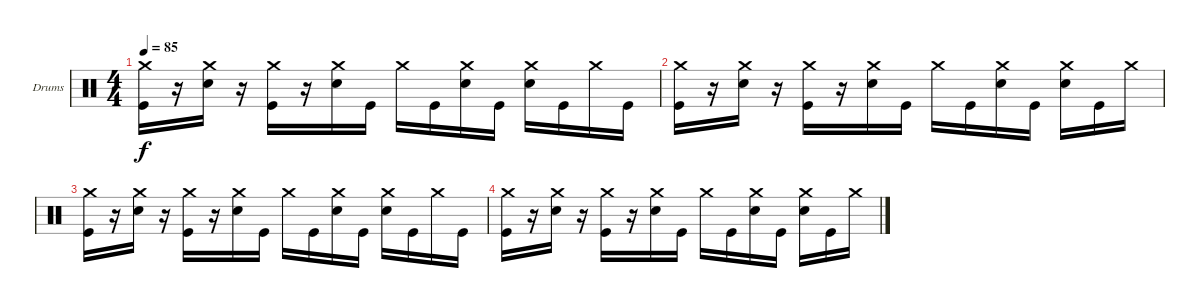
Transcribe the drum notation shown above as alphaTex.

\defaultSystemsLayout 4
\bracketExtendMode groupsimilarinstruments
\firstSystemTrackNameOrientation horizontal
\otherSystemsTrackNameOrientation horizontal
\track ("Drumkit" "Drums") {instrument percussion}
\staff {score}
\articulation defaults
\ts (4 4)
\tempo 85
\clef neutral
\ks c
("Crash medium (hit)" "Kick (hit)").16{dy f} r.16 ("Crash medium (hit)" "Snare (hit) 2").16 r.16 ("Crash medium (hit)" "Kick (hit)").16 r.16 ("Crash medium (hit)" "Snare (hit) 2").16 "Kick (hit)".16 "Crash medium (hit)".16 "Kick (hit)".16 ("Crash medium (hit)" "Snare (hit) 2").16 "Kick (hit)".16 ("Crash medium (hit)" "Snare (hit) 2").16 "Kick (hit)".16 "Crash medium (hit)".16 "Kick (hit)".16 |
("Crash medium (hit)" "Kick (hit)").16 r.16 ("Crash medium (hit)" "Snare (hit) 2").16 r.16 ("Crash medium (hit)" "Kick (hit)").16 r.16 ("Crash medium (hit)" "Snare (hit) 2").16 "Kick (hit)".16 "Crash medium (hit)".16 "Kick (hit)".16 ("Crash medium (hit)" "Snare (hit) 2").16 "Kick (hit)".16 ("Crash medium (hit)" "Snare (hit) 2").16 "Kick (hit)".16 "Crash medium (hit)".16 |
("Crash medium (hit)" "Kick (hit)").16 r.16 ("Crash medium (hit)" "Snare (hit) 2").16 r.16 ("Crash medium (hit)" "Kick (hit)").16 r.16 ("Crash medium (hit)" "Snare (hit) 2").16 "Kick (hit)".16 "Crash medium (hit)".16 "Kick (hit)".16 ("Crash medium (hit)" "Snare (hit) 2").16 "Kick (hit)".16 ("Crash medium (hit)" "Snare (hit) 2").16 "Kick (hit)".16 "Crash medium (hit)".16 "Kick (hit)".16 |
("Crash medium (hit)" "Kick (hit)").16 r.16 ("Crash medium (hit)" "Snare (hit) 2").16 r.16 ("Crash medium (hit)" "Kick (hit)").16 r.16 ("Crash medium (hit)" "Snare (hit) 2").16 "Kick (hit)".16 "Crash medium (hit)".16 "Kick (hit)".16 ("Crash medium (hit)" "Snare (hit) 2").16 "Kick (hit)".16 ("Crash medium (hit)" "Snare (hit) 2").16 "Kick (hit)".16 "Crash medium (hit)".16
